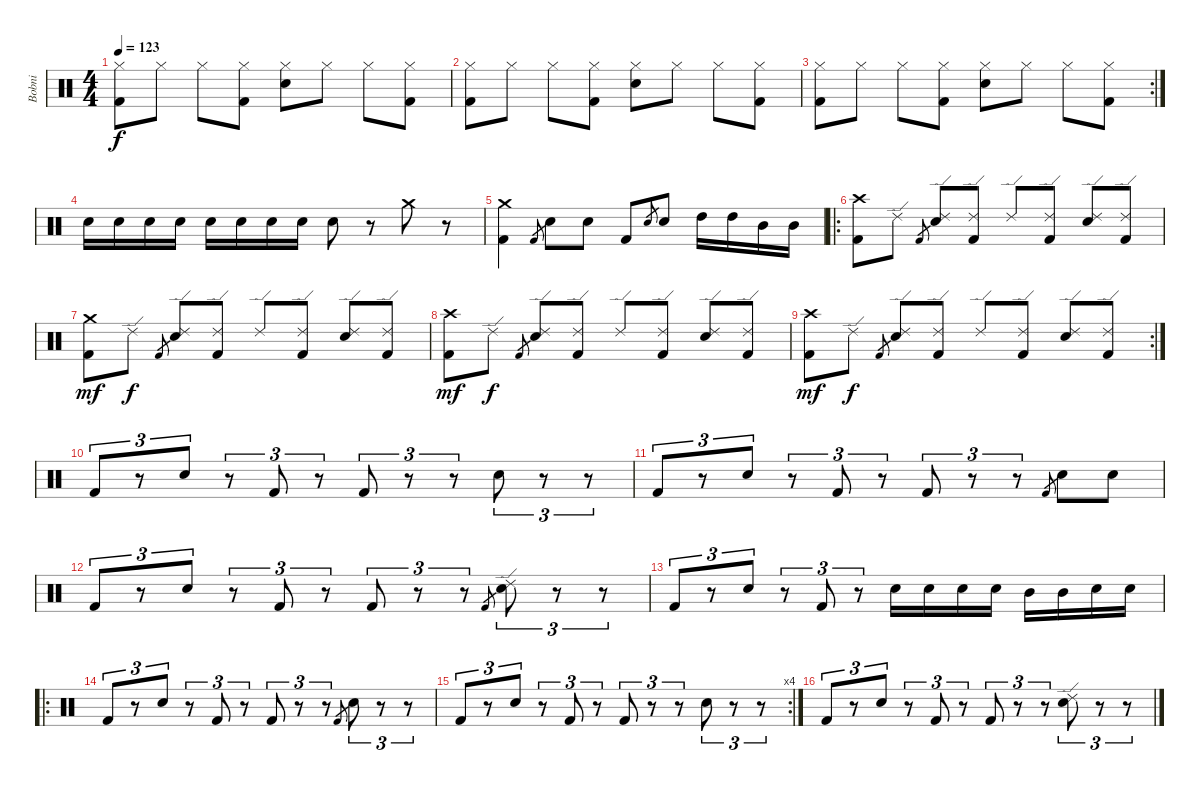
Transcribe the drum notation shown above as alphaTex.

\track ("Bobni" "Bobni") {instrument percussion}
\staff {score}
\articulation defaults
\ts (4 4)
\tempo 123
\clef neutral
\ks c
("Hi-Hat (closed)" "Kick (hit) 2").8{dy f} "Hi-Hat (closed)".8 "Hi-Hat (closed)".8 ("Hi-Hat (closed)" "Kick (hit) 2").8 ("Hi-Hat (closed)" "Snare (hit) 2").8 "Hi-Hat (closed)".8 "Hi-Hat (closed)".8 ("Hi-Hat (closed)" "Kick (hit) 2").8 |
("Hi-Hat (closed)" "Kick (hit) 2").8 "Hi-Hat (closed)".8 "Hi-Hat (closed)".8 ("Hi-Hat (closed)" "Kick (hit) 2").8 ("Hi-Hat (closed)" "Snare (hit) 2").8 "Hi-Hat (closed)".8 "Hi-Hat (closed)".8 ("Hi-Hat (closed)" "Kick (hit) 2").8 |
\rc 2
("Hi-Hat (closed)" "Kick (hit) 2").8 "Hi-Hat (closed)".8 "Hi-Hat (closed)".8 ("Hi-Hat (closed)" "Kick (hit) 2").8 ("Hi-Hat (closed)" "Snare (hit) 2").8 "Hi-Hat (closed)".8 "Hi-Hat (closed)".8 ("Hi-Hat (closed)" "Kick (hit) 2").8 |
"Snare (hit) 2".16 "Snare (hit) 2".16 "Snare (hit) 2".16 "Snare (hit) 2".16 "Snare (hit) 2".16 "Snare (hit) 2".16 "Snare (hit) 2".16 "Snare (hit) 2".16 "Snare (hit) 2".8 r.8 "Crash medium (hit)".8 r.8 |
("Crash medium (hit)" "Kick (hit) 2").4 "Kick (hit) 2".8{gr} "Snare (hit) 2".8 "Snare (hit) 2".8 "Kick (hit) 2".8 "Snare (hit) 2".8{gr} "Snare (hit) 2".8 "High Tom (hit)".16 "High Tom (hit)".16 "Mid Tom (hit)".16 "Mid Tom (hit)".16 |
\ro
("Crash high (hit)" "Kick (hit) 2").8 "Ride (edge) 2".8 "Kick (hit) 2".8{gr} ("Ride (edge) 2" "Snare (hit) 2").8 ("Ride (edge) 2" "Kick (hit) 2").8 "Ride (edge) 2".8 ("Ride (edge) 2" "Kick (hit) 2").8 ("Ride (edge) 2" "Snare (hit) 2").8 ("Ride (edge) 2" "Kick (hit) 2").8 |
("Crash medium (hit)" "Kick (hit) 2").8{dy mf} "Ride (edge) 2".8{dy f} "Kick (hit) 2".8{gr} ("Ride (edge) 2" "Snare (hit) 2").8 ("Ride (edge) 2" "Kick (hit) 2").8 "Ride (edge) 2".8 ("Ride (edge) 2" "Kick (hit) 2").8 ("Ride (edge) 2" "Snare (hit) 2").8 ("Ride (edge) 2" "Kick (hit) 2").8 |
("Crash high (hit)" "Kick (hit) 2").8{dy mf} "Ride (edge) 2".8{dy f} "Kick (hit) 2".8{gr} ("Ride (edge) 2" "Snare (hit) 2").8 ("Ride (edge) 2" "Kick (hit) 2").8 "Ride (edge) 2".8 ("Ride (edge) 2" "Kick (hit) 2").8 ("Ride (edge) 2" "Snare (hit) 2").8 ("Ride (edge) 2" "Kick (hit) 2").8 |
\rc 2
("Crash high (hit)" "Kick (hit) 2").8{dy mf} "Ride (edge) 2".8{dy f} "Kick (hit) 2".8{gr} ("Ride (edge) 2" "Snare (hit) 2").8 ("Ride (edge) 2" "Kick (hit) 2").8 "Ride (edge) 2".8 ("Ride (edge) 2" "Kick (hit) 2").8 ("Ride (edge) 2" "Snare (hit) 2").8 ("Ride (edge) 2" "Kick (hit) 2").8 |
"Kick (hit) 2".8{tu (3 2)} r.8{tu (3 2)} "Snare (hit) 2".8{tu (3 2)} r.8{tu (3 2)} "Kick (hit) 2".8{tu (3 2)} r.8{tu (3 2)} "Kick (hit) 2".8{tu (3 2)} r.8{tu (3 2)} r.8{tu (3 2)} "Snare (hit) 2".8{tu (3 2)} r.8{tu (3 2)} r.8{tu (3 2)} |
"Kick (hit) 2".8{tu (3 2)} r.8{tu (3 2)} "Snare (hit) 2".8{tu (3 2)} r.8{tu (3 2)} "Kick (hit) 2".8{tu (3 2)} r.8{tu (3 2)} "Kick (hit) 2".8{tu (3 2)} r.8{tu (3 2)} r.8{tu (3 2)} "Kick (hit) 2".8{gr} "Snare (hit) 2".8 "Snare (hit) 2".8 |
"Kick (hit) 2".8{tu (3 2)} r.8{tu (3 2)} "Snare (hit) 2".8{tu (3 2)} r.8{tu (3 2)} "Kick (hit) 2".8{tu (3 2)} r.8{tu (3 2)} "Kick (hit) 2".8{tu (3 2)} r.8{tu (3 2)} r.8{tu (3 2)} "Kick (hit) 2".8{gr} ("Ride (edge) 2" "Snare (hit) 2").8{tu (3 2)} r.8{tu (3 2)} r.8{tu (3 2)} |
"Kick (hit) 2".8{tu (3 2)} r.8{tu (3 2)} "Snare (hit) 2".8{tu (3 2)} r.8{tu (3 2)} "Kick (hit) 2".8{tu (3 2)} r.8{tu (3 2)} "Snare (hit) 2".16 "Snare (hit) 2".16 "Snare (hit) 2".16 "Snare (hit) 2".16 "Mid Tom (hit)".16 "Mid Tom (hit)".16 "Snare (hit) 2".16 "Snare (hit) 2".16 |
\ro "Kick (hit) 2".8{tu (3 2)}
r.8{tu (3 2)} "Snare (hit) 2".8{tu (3 2)} r.8{tu (3 2)} "Kick (hit) 2".8{tu (3 2)} r.8{tu (3 2)} "Kick (hit) 2".8{tu (3 2)} r.8{tu (3 2)} r.8{tu (3 2)} "Kick (hit) 2".8{gr} "Snare (hit) 2".8{tu (3 2)} r.8{tu (3 2)} r.8{tu (3 2)} |
\rc 4 "Kick (hit) 2".8{tu (3 2)}
r.8{tu (3 2)} "Snare (hit) 2".8{tu (3 2)} r.8{tu (3 2)} "Kick (hit) 2".8{tu (3 2)} r.8{tu (3 2)} "Kick (hit) 2".8{tu (3 2)} r.8{tu (3 2)} r.8{tu (3 2)} "Snare (hit) 2".8{tu (3 2)} r.8{tu (3 2)} r.8{tu (3 2)} |
"Kick (hit) 2".8{tu (3 2)} r.8{tu (3 2)} "Snare (hit) 2".8{tu (3 2)} r.8{tu (3 2)} "Kick (hit) 2".8{tu (3 2)} r.8{tu (3 2)} "Kick (hit) 2".8{tu (3 2)} r.8{tu (3 2)} r.8{tu (3 2)} ("Ride (edge) 2" "Snare (hit) 2").8{tu (3 2)} r.8{tu (3 2)} r.8{tu (3 2)}
